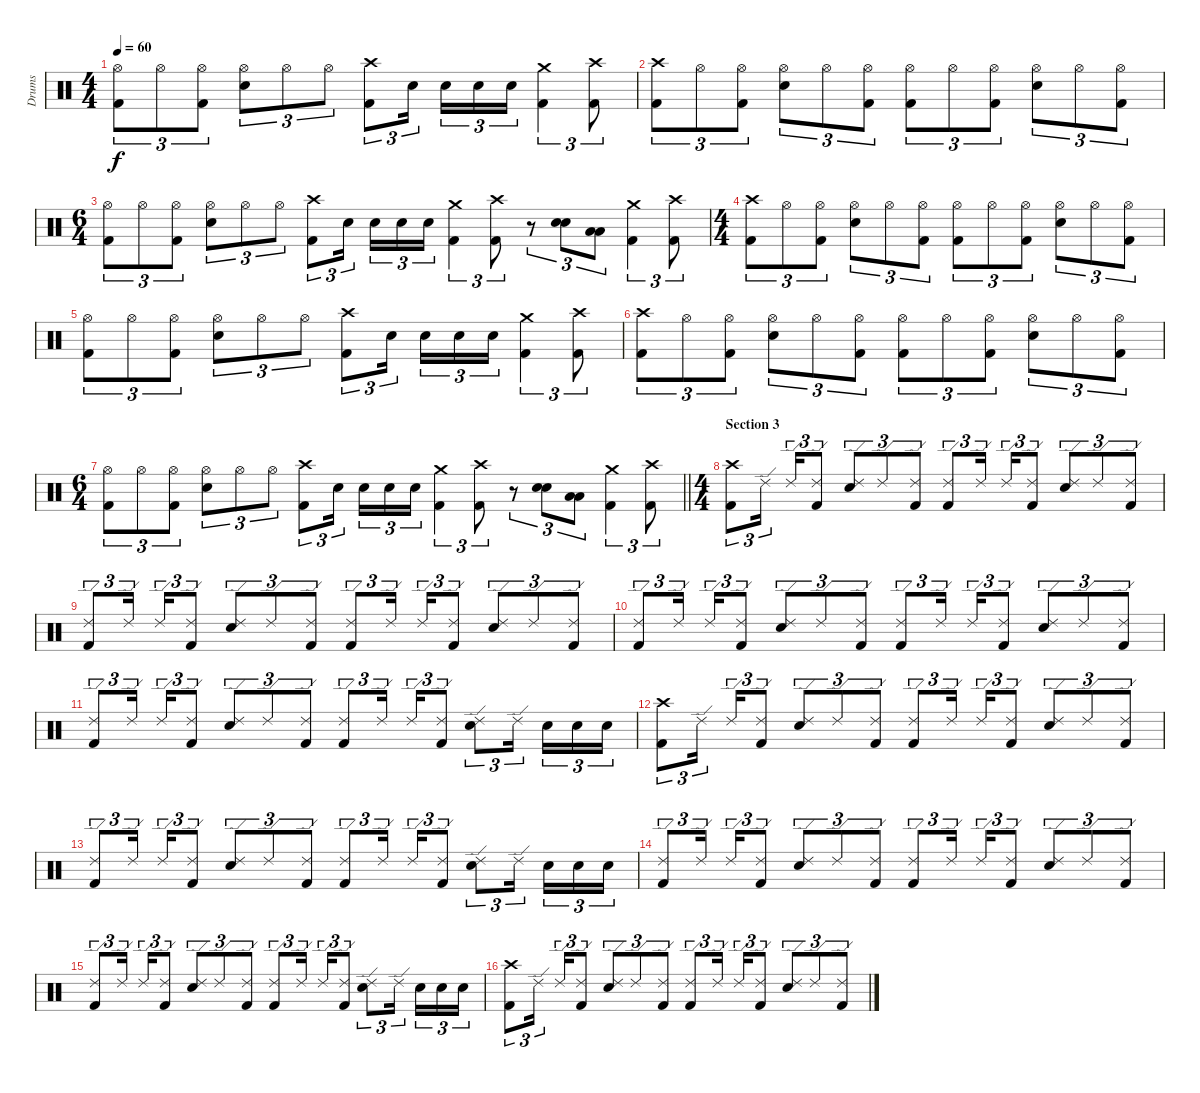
\track ("Drums" "Drums") {instrument percussion}
\staff {score}
\articulation defaults
\ts (4 4)
\tempo 60
\clef neutral
\ks c
("Hi-Hat (open)" "Kick (hit) 2").8{tu (3 2) dy f} "Hi-Hat (open)".8{tu (3 2)} ("Hi-Hat (open)" "Kick (hit) 2").8{tu (3 2)} ("Hi-Hat (open)" "Electric Snare (hit)").8{tu (3 2)} "Hi-Hat (open)".8{tu (3 2)} "Hi-Hat (open)".8{tu (3 2)} ("Crash high (hit)" "Kick (hit) 2").8{tu (3 2)} "Electric Snare (hit)".16{tu (3 2)} "Electric Snare (hit)".16{tu (3 2)} "Electric Snare (hit)".16{tu (3 2)} "Electric Snare (hit)".16{tu (3 2)} ("Crash medium (hit)" "Kick (hit) 2").4{tu (3 2)} ("Crash high (hit)" "Kick (hit) 2").8{tu (3 2)} |
("Crash high (hit)" "Kick (hit) 2").8{tu (3 2)} "Hi-Hat (open)".8{tu (3 2)} ("Hi-Hat (open)" "Kick (hit) 2").8{tu (3 2)} ("Hi-Hat (open)" "Electric Snare (hit)").8{tu (3 2)} "Hi-Hat (open)".8{tu (3 2)} ("Hi-Hat (open)" "Kick (hit) 2").8{tu (3 2)} ("Hi-Hat (open)" "Kick (hit) 2").8{tu (3 2)} "Hi-Hat (open)".8{tu (3 2)} ("Hi-Hat (open)" "Kick (hit) 2").8{tu (3 2)} ("Hi-Hat (open)" "Electric Snare (hit)").8{tu (3 2)} "Hi-Hat (open)".8{tu (3 2)} ("Hi-Hat (open)" "Kick (hit) 2").8{tu (3 2)} |
\ts (6 4)
("Hi-Hat (open)" "Kick (hit) 2").8{tu (3 2)} "Hi-Hat (open)".8{tu (3 2)} ("Hi-Hat (open)" "Kick (hit) 2").8{tu (3 2)} ("Hi-Hat (open)" "Electric Snare (hit)").8{tu (3 2)} "Hi-Hat (open)".8{tu (3 2)} "Hi-Hat (open)".8{tu (3 2)} ("Crash high (hit)" "Kick (hit) 2").8{tu (3 2)} "Electric Snare (hit)".16{tu (3 2)} "Electric Snare (hit)".16{tu (3 2)} "Electric Snare (hit)".16{tu (3 2)} "Electric Snare (hit)".16{tu (3 2)} ("Crash medium (hit)" "Kick (hit) 2").4{tu (3 2)} ("Crash high (hit)" "Kick (hit) 2").8{tu (3 2)} r.8{tu (3 2)} ("Electric Snare (hit)" "Electric Snare (hit)").8{tu (3 2) bu 60} ("Low Tom (hit)" "Low Tom (hit)").8{tu (3 2) bu 60} ("Crash medium (hit)" "Kick (hit) 2").4{tu (3 2)} ("Crash high (hit)" "Kick (hit) 2").8{tu (3 2)} |
\ts (4 4)
("Crash high (hit)" "Kick (hit) 2").8{tu (3 2)} "Hi-Hat (open)".8{tu (3 2)} ("Hi-Hat (open)" "Kick (hit) 2").8{tu (3 2)} ("Hi-Hat (open)" "Electric Snare (hit)").8{tu (3 2)} "Hi-Hat (open)".8{tu (3 2)} ("Hi-Hat (open)" "Kick (hit) 2").8{tu (3 2)} ("Hi-Hat (open)" "Kick (hit) 2").8{tu (3 2)} "Hi-Hat (open)".8{tu (3 2)} ("Hi-Hat (open)" "Kick (hit) 2").8{tu (3 2)} ("Hi-Hat (open)" "Electric Snare (hit)").8{tu (3 2)} "Hi-Hat (open)".8{tu (3 2)} ("Hi-Hat (open)" "Kick (hit) 2").8{tu (3 2)} |
("Hi-Hat (open)" "Kick (hit) 2").8{tu (3 2)} "Hi-Hat (open)".8{tu (3 2)} ("Hi-Hat (open)" "Kick (hit) 2").8{tu (3 2)} ("Hi-Hat (open)" "Electric Snare (hit)").8{tu (3 2)} "Hi-Hat (open)".8{tu (3 2)} "Hi-Hat (open)".8{tu (3 2)} ("Crash high (hit)" "Kick (hit) 2").8{tu (3 2)} "Electric Snare (hit)".16{tu (3 2)} "Electric Snare (hit)".16{tu (3 2)} "Electric Snare (hit)".16{tu (3 2)} "Electric Snare (hit)".16{tu (3 2)} ("Crash medium (hit)" "Kick (hit) 2").4{tu (3 2)} ("Crash high (hit)" "Kick (hit) 2").8{tu (3 2)} |
("Crash high (hit)" "Kick (hit) 2").8{tu (3 2)} "Hi-Hat (open)".8{tu (3 2)} ("Hi-Hat (open)" "Kick (hit) 2").8{tu (3 2)} ("Hi-Hat (open)" "Electric Snare (hit)").8{tu (3 2)} "Hi-Hat (open)".8{tu (3 2)} ("Hi-Hat (open)" "Kick (hit) 2").8{tu (3 2)} ("Hi-Hat (open)" "Kick (hit) 2").8{tu (3 2)} "Hi-Hat (open)".8{tu (3 2)} ("Hi-Hat (open)" "Kick (hit) 2").8{tu (3 2)} ("Hi-Hat (open)" "Electric Snare (hit)").8{tu (3 2)} "Hi-Hat (open)".8{tu (3 2)} ("Hi-Hat (open)" "Kick (hit) 2").8{tu (3 2)} |
\ts (6 4)
\barLineRight lightlight
("Hi-Hat (open)" "Kick (hit) 2").8{tu (3 2)} "Hi-Hat (open)".8{tu (3 2)} ("Hi-Hat (open)" "Kick (hit) 2").8{tu (3 2)} ("Hi-Hat (open)" "Electric Snare (hit)").8{tu (3 2)} "Hi-Hat (open)".8{tu (3 2)} "Hi-Hat (open)".8{tu (3 2)} ("Crash high (hit)" "Kick (hit) 2").8{tu (3 2)} "Electric Snare (hit)".16{tu (3 2)} "Electric Snare (hit)".16{tu (3 2)} "Electric Snare (hit)".16{tu (3 2)} "Electric Snare (hit)".16{tu (3 2)} ("Crash medium (hit)" "Kick (hit) 2").4{tu (3 2)} ("Crash high (hit)" "Kick (hit) 2").8{tu (3 2)} r.8{tu (3 2)} ("Electric Snare (hit)" "Electric Snare (hit)").8{tu (3 2) bu 60} ("Low Tom (hit)" "Low Tom (hit)").8{tu (3 2) bu 60} ("Crash medium (hit)" "Kick (hit) 2").4{tu (3 2)} ("Crash high (hit)" "Kick (hit) 2").8{tu (3 2)} |
\ts (4 4)
\section ("" "Section 3")
("Crash high (hit)" "Kick (hit) 2").8{tu (3 2)} "Ride (edge) 2".16{tu (3 2)} "Ride (edge) 2".16{tu (3 2)} ("Ride (edge) 2" "Kick (hit) 2").8{tu (3 2)} ("Ride (edge) 2" "Electric Snare (hit)").8{tu (3 2)} "Ride (edge) 2".8{tu (3 2)} ("Ride (edge) 2" "Kick (hit) 2").8{tu (3 2)} ("Ride (edge) 2" "Kick (hit) 2").8{tu (3 2)} "Ride (edge) 2".16{tu (3 2)} "Ride (edge) 2".16{tu (3 2)} ("Ride (edge) 2" "Kick (hit) 2").8{tu (3 2)} ("Ride (edge) 2" "Electric Snare (hit)").8{tu (3 2)} "Ride (edge) 2".8{tu (3 2)} ("Ride (edge) 2" "Kick (hit) 2").8{tu (3 2)} |
("Ride (edge) 2" "Kick (hit) 2").8{tu (3 2)} "Ride (edge) 2".16{tu (3 2)} "Ride (edge) 2".16{tu (3 2)} ("Ride (edge) 2" "Kick (hit) 2").8{tu (3 2)} ("Ride (edge) 2" "Electric Snare (hit)").8{tu (3 2)} "Ride (edge) 2".8{tu (3 2)} ("Ride (edge) 2" "Kick (hit) 2").8{tu (3 2)} ("Ride (edge) 2" "Kick (hit) 2").8{tu (3 2)} "Ride (edge) 2".16{tu (3 2)} "Ride (edge) 2".16{tu (3 2)} ("Ride (edge) 2" "Kick (hit) 2").8{tu (3 2)} ("Ride (edge) 2" "Electric Snare (hit)").8{tu (3 2)} "Ride (edge) 2".8{tu (3 2)} ("Ride (edge) 2" "Kick (hit) 2").8{tu (3 2)} |
("Ride (edge) 2" "Kick (hit) 2").8{tu (3 2)} "Ride (edge) 2".16{tu (3 2)} "Ride (edge) 2".16{tu (3 2)} ("Ride (edge) 2" "Kick (hit) 2").8{tu (3 2)} ("Ride (edge) 2" "Electric Snare (hit)").8{tu (3 2)} "Ride (edge) 2".8{tu (3 2)} ("Ride (edge) 2" "Kick (hit) 2").8{tu (3 2)} ("Ride (edge) 2" "Kick (hit) 2").8{tu (3 2)} "Ride (edge) 2".16{tu (3 2)} "Ride (edge) 2".16{tu (3 2)} ("Ride (edge) 2" "Kick (hit) 2").8{tu (3 2)} ("Ride (edge) 2" "Electric Snare (hit)").8{tu (3 2)} "Ride (edge) 2".8{tu (3 2)} ("Ride (edge) 2" "Kick (hit) 2").8{tu (3 2)} |
("Ride (edge) 2" "Kick (hit) 2").8{tu (3 2)} "Ride (edge) 2".16{tu (3 2)} "Ride (edge) 2".16{tu (3 2)} ("Ride (edge) 2" "Kick (hit) 2").8{tu (3 2)} ("Ride (edge) 2" "Electric Snare (hit)").8{tu (3 2)} "Ride (edge) 2".8{tu (3 2)} ("Ride (edge) 2" "Kick (hit) 2").8{tu (3 2)} ("Ride (edge) 2" "Kick (hit) 2").8{tu (3 2)} "Ride (edge) 2".16{tu (3 2)} "Ride (edge) 2".16{tu (3 2)} ("Ride (edge) 2" "Kick (hit) 2").8{tu (3 2)} ("Ride (edge) 2" "Electric Snare (hit)").8{tu (3 2)} "Ride (edge) 2".16{tu (3 2)} "Electric Snare (hit)".16{tu (3 2)} "Electric Snare (hit)".16{tu (3 2)} "Electric Snare (hit)".16{tu (3 2)} |
("Crash high (hit)" "Kick (hit) 2").8{tu (3 2)} "Ride (edge) 2".16{tu (3 2)} "Ride (edge) 2".16{tu (3 2)} ("Ride (edge) 2" "Kick (hit) 2").8{tu (3 2)} ("Ride (edge) 2" "Electric Snare (hit)").8{tu (3 2)} "Ride (edge) 2".8{tu (3 2)} ("Ride (edge) 2" "Kick (hit) 2").8{tu (3 2)} ("Ride (edge) 2" "Kick (hit) 2").8{tu (3 2)} "Ride (edge) 2".16{tu (3 2)} "Ride (edge) 2".16{tu (3 2)} ("Ride (edge) 2" "Kick (hit) 2").8{tu (3 2)} ("Ride (edge) 2" "Electric Snare (hit)").8{tu (3 2)} "Ride (edge) 2".8{tu (3 2)} ("Ride (edge) 2" "Kick (hit) 2").8{tu (3 2)} |
("Ride (edge) 2" "Kick (hit) 2").8{tu (3 2)} "Ride (edge) 2".16{tu (3 2)} "Ride (edge) 2".16{tu (3 2)} ("Ride (edge) 2" "Kick (hit) 2").8{tu (3 2)} ("Ride (edge) 2" "Electric Snare (hit)").8{tu (3 2)} "Ride (edge) 2".8{tu (3 2)} ("Ride (edge) 2" "Kick (hit) 2").8{tu (3 2)} ("Ride (edge) 2" "Kick (hit) 2").8{tu (3 2)} "Ride (edge) 2".16{tu (3 2)} "Ride (edge) 2".16{tu (3 2)} ("Ride (edge) 2" "Kick (hit) 2").8{tu (3 2)} ("Ride (edge) 2" "Electric Snare (hit)").8{tu (3 2)} "Ride (edge) 2".16{tu (3 2)} "Electric Snare (hit)".16{tu (3 2)} "Electric Snare (hit)".16{tu (3 2)} "Electric Snare (hit)".16{tu (3 2)} |
("Ride (edge) 2" "Kick (hit) 2").8{tu (3 2)} "Ride (edge) 2".16{tu (3 2)} "Ride (edge) 2".16{tu (3 2)} ("Ride (edge) 2" "Kick (hit) 2").8{tu (3 2)} ("Ride (edge) 2" "Electric Snare (hit)").8{tu (3 2)} "Ride (edge) 2".8{tu (3 2)} ("Ride (edge) 2" "Kick (hit) 2").8{tu (3 2)} ("Ride (edge) 2" "Kick (hit) 2").8{tu (3 2)} "Ride (edge) 2".16{tu (3 2)} "Ride (edge) 2".16{tu (3 2)} ("Ride (edge) 2" "Kick (hit) 2").8{tu (3 2)} ("Ride (edge) 2" "Electric Snare (hit)").8{tu (3 2)} "Ride (edge) 2".8{tu (3 2)} ("Ride (edge) 2" "Kick (hit) 2").8{tu (3 2)} |
("Ride (edge) 2" "Kick (hit) 2").8{tu (3 2)} "Ride (edge) 2".16{tu (3 2)} "Ride (edge) 2".16{tu (3 2)} ("Ride (edge) 2" "Kick (hit) 2").8{tu (3 2)} ("Ride (edge) 2" "Electric Snare (hit)").8{tu (3 2)} "Ride (edge) 2".8{tu (3 2)} ("Ride (edge) 2" "Kick (hit) 2").8{tu (3 2)} ("Ride (edge) 2" "Kick (hit) 2").8{tu (3 2)} "Ride (edge) 2".16{tu (3 2)} "Ride (edge) 2".16{tu (3 2)} ("Ride (edge) 2" "Kick (hit) 2").8{tu (3 2)} ("Ride (edge) 2" "Electric Snare (hit)").8{tu (3 2)} "Ride (edge) 2".16{tu (3 2)} "Electric Snare (hit)".16{tu (3 2)} "Electric Snare (hit)".16{tu (3 2)} "Electric Snare (hit)".16{tu (3 2)} |
("Crash high (hit)" "Kick (hit) 2").8{tu (3 2)} "Ride (edge) 2".16{tu (3 2)} "Ride (edge) 2".16{tu (3 2)} ("Ride (edge) 2" "Kick (hit) 2").8{tu (3 2)} ("Ride (edge) 2" "Electric Snare (hit)").8{tu (3 2)} "Ride (edge) 2".8{tu (3 2)} ("Ride (edge) 2" "Kick (hit) 2").8{tu (3 2)} ("Ride (edge) 2" "Kick (hit) 2").8{tu (3 2)} "Ride (edge) 2".16{tu (3 2)} "Ride (edge) 2".16{tu (3 2)} ("Ride (edge) 2" "Kick (hit) 2").8{tu (3 2)} ("Ride (edge) 2" "Electric Snare (hit)").8{tu (3 2)} "Ride (edge) 2".8{tu (3 2)} ("Ride (edge) 2" "Kick (hit) 2").8{tu (3 2)}
